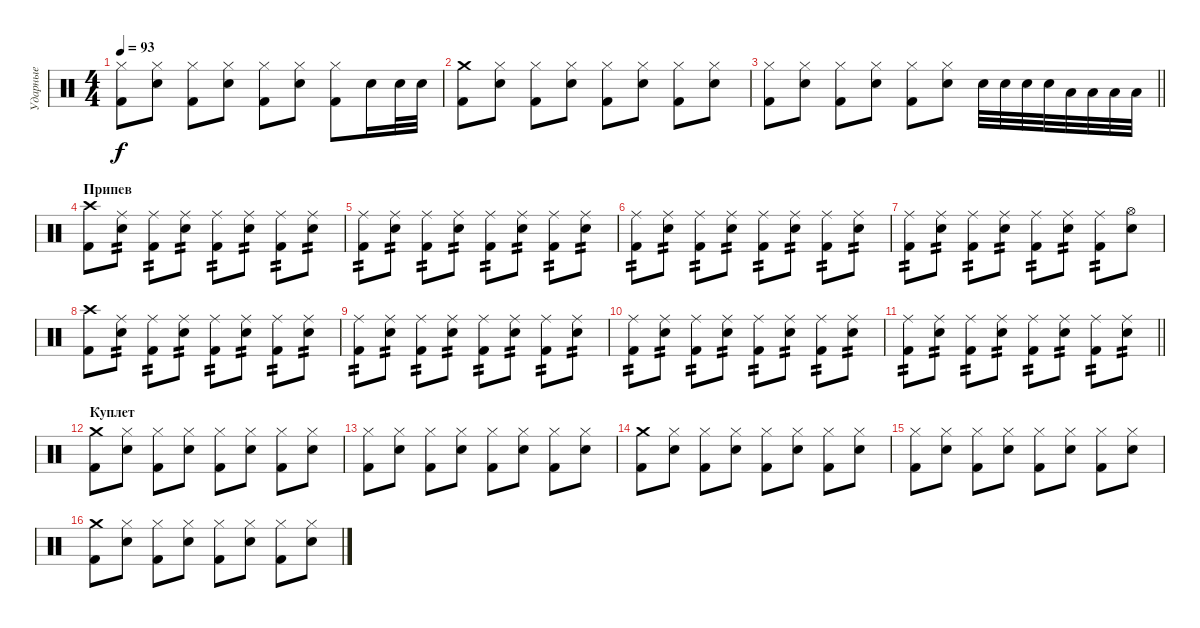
\track ("Ударные" "Ударные") {instrument percussion}
\staff {score}
\articulation defaults
\ts (4 4)
\tempo 93
\clef neutral
\ks c
("Kick (hit) 2" "Hi-Hat (closed)").8{dy f} ("Electric Snare (hit)" "Hi-Hat (closed)").8 ("Kick (hit) 2" "Hi-Hat (closed)").8 ("Electric Snare (hit)" "Hi-Hat (closed)").8 ("Kick (hit) 2" "Hi-Hat (closed)").8 ("Electric Snare (hit)" "Hi-Hat (closed)").8 ("Kick (hit) 2" "Hi-Hat (closed)").8 "Electric Snare (hit)".16 "Electric Snare (hit)".32 "Electric Snare (hit)".32 |
("Kick (hit) 2" "Crash medium (hit)").8 ("Electric Snare (hit)" "Hi-Hat (closed)").8 ("Kick (hit) 2" "Hi-Hat (closed)").8 ("Electric Snare (hit)" "Hi-Hat (closed)").8 ("Kick (hit) 2" "Hi-Hat (closed)").8 ("Electric Snare (hit)" "Hi-Hat (closed)").8 ("Kick (hit) 2" "Hi-Hat (closed)").8 ("Electric Snare (hit)" "Hi-Hat (closed)").8 |
\barLineRight lightlight
("Kick (hit) 2" "Hi-Hat (closed)").8 ("Electric Snare (hit)" "Hi-Hat (closed)").8 ("Kick (hit) 2" "Hi-Hat (closed)").8 ("Electric Snare (hit)" "Hi-Hat (closed)").8 ("Kick (hit) 2" "Hi-Hat (closed)").8 ("Electric Snare (hit)" "Hi-Hat (closed)").8 "Electric Snare (hit)".32 "Electric Snare (hit)".32 "Electric Snare (hit)".32 "Electric Snare (hit)".32 "Low Tom (hit)".32 "Low Tom (hit)".32 "Low Tom (hit)".32 "Low Tom (hit)".32 |
\section ("" "Припев")
("Kick (hit) 2" "Crash high (hit)").8 ("Electric Snare (hit)" "Ride (middle)").8{tp 2} ("Kick (hit) 2" "Ride (middle)").8{tp 2} ("Electric Snare (hit)" "Ride (middle)").8{tp 2} ("Kick (hit) 2" "Ride (middle)").8{tp 2} ("Electric Snare (hit)" "Ride (middle)").8{tp 2} ("Kick (hit) 2" "Ride (middle)").8{tp 2} ("Electric Snare (hit)" "Ride (middle)").8{tp 2} |
("Kick (hit) 2" "Ride (middle)").8{tp 2} ("Electric Snare (hit)" "Ride (middle)").8{tp 2} ("Kick (hit) 2" "Ride (middle)").8{tp 2} ("Electric Snare (hit)" "Ride (middle)").8{tp 2} ("Kick (hit) 2" "Ride (middle)").8{tp 2} ("Electric Snare (hit)" "Ride (middle)").8{tp 2} ("Kick (hit) 2" "Ride (middle)").8{tp 2} ("Electric Snare (hit)" "Ride (middle)").8{tp 2} |
("Kick (hit) 2" "Ride (middle)").8{tp 2} ("Electric Snare (hit)" "Ride (middle)").8{tp 2} ("Kick (hit) 2" "Ride (middle)").8{tp 2} ("Electric Snare (hit)" "Ride (middle)").8{tp 2} ("Kick (hit) 2" "Ride (middle)").8{tp 2} ("Electric Snare (hit)" "Ride (middle)").8{tp 2} ("Kick (hit) 2" "Ride (middle)").8{tp 2} ("Electric Snare (hit)" "Ride (middle)").8{tp 2} |
("Kick (hit) 2" "Ride (middle)").8{tp 2} ("Electric Snare (hit)" "Ride (middle)").8{tp 2} ("Kick (hit) 2" "Ride (middle)").8{tp 2} ("Electric Snare (hit)" "Ride (middle)").8{tp 2} ("Kick (hit) 2" "Ride (middle)").8{tp 2} ("Electric Snare (hit)" "Ride (middle)").8{tp 2} ("Kick (hit) 2" "Ride (middle)").8{tp 2} ("Electric Snare (hit)" "Hi-Hat (open)").8 |
("Kick (hit) 2" "Crash high (hit)").8 ("Electric Snare (hit)" "Ride (middle)").8{tp 2} ("Kick (hit) 2" "Ride (middle)").8{tp 2} ("Electric Snare (hit)" "Ride (middle)").8{tp 2} ("Kick (hit) 2" "Ride (middle)").8{tp 2} ("Electric Snare (hit)" "Ride (middle)").8{tp 2} ("Kick (hit) 2" "Ride (middle)").8{tp 2} ("Electric Snare (hit)" "Ride (middle)").8{tp 2} |
("Kick (hit) 2" "Ride (middle)").8{tp 2} ("Electric Snare (hit)" "Ride (middle)").8{tp 2} ("Kick (hit) 2" "Ride (middle)").8{tp 2} ("Electric Snare (hit)" "Ride (middle)").8{tp 2} ("Kick (hit) 2" "Ride (middle)").8{tp 2} ("Electric Snare (hit)" "Ride (middle)").8{tp 2} ("Kick (hit) 2" "Ride (middle)").8{tp 2} ("Electric Snare (hit)" "Ride (middle)").8{tp 2} |
("Kick (hit) 2" "Ride (middle)").8{tp 2} ("Electric Snare (hit)" "Ride (middle)").8{tp 2} ("Kick (hit) 2" "Ride (middle)").8{tp 2} ("Electric Snare (hit)" "Ride (middle)").8{tp 2} ("Kick (hit) 2" "Ride (middle)").8{tp 2} ("Electric Snare (hit)" "Ride (middle)").8{tp 2} ("Kick (hit) 2" "Ride (middle)").8{tp 2} ("Electric Snare (hit)" "Ride (middle)").8{tp 2} |
\barLineRight lightlight
("Kick (hit) 2" "Ride (middle)").8{tp 2} ("Electric Snare (hit)" "Ride (middle)").8{tp 2} ("Kick (hit) 2" "Ride (middle)").8{tp 2} ("Electric Snare (hit)" "Ride (middle)").8{tp 2} ("Kick (hit) 2" "Ride (middle)").8{tp 2} ("Electric Snare (hit)" "Ride (middle)").8{tp 2} ("Kick (hit) 2" "Ride (middle)").8{tp 2} ("Electric Snare (hit)" "Ride (middle)").8{tp 2} |
\section ("" "Куплет")
("Kick (hit) 2" "Crash medium (hit)").8 ("Electric Snare (hit)" "Hi-Hat (closed)").8 ("Kick (hit) 2" "Hi-Hat (closed)").8 ("Electric Snare (hit)" "Hi-Hat (closed)").8 ("Kick (hit) 2" "Hi-Hat (closed)").8 ("Electric Snare (hit)" "Hi-Hat (closed)").8 ("Kick (hit) 2" "Hi-Hat (closed)").8 ("Electric Snare (hit)" "Hi-Hat (closed)").8 |
("Kick (hit) 2" "Hi-Hat (closed)").8 ("Electric Snare (hit)" "Hi-Hat (closed)").8 ("Kick (hit) 2" "Hi-Hat (closed)").8 ("Electric Snare (hit)" "Hi-Hat (closed)").8 ("Kick (hit) 2" "Hi-Hat (closed)").8 ("Electric Snare (hit)" "Hi-Hat (closed)").8 ("Kick (hit) 2" "Hi-Hat (closed)").8 ("Electric Snare (hit)" "Hi-Hat (closed)").8 |
("Kick (hit) 2" "Crash medium (hit)").8 ("Electric Snare (hit)" "Hi-Hat (closed)").8 ("Kick (hit) 2" "Hi-Hat (closed)").8 ("Electric Snare (hit)" "Hi-Hat (closed)").8 ("Kick (hit) 2" "Hi-Hat (closed)").8 ("Electric Snare (hit)" "Hi-Hat (closed)").8 ("Kick (hit) 2" "Hi-Hat (closed)").8 ("Electric Snare (hit)" "Hi-Hat (closed)").8 |
("Kick (hit) 2" "Hi-Hat (closed)").8 ("Electric Snare (hit)" "Hi-Hat (closed)").8 ("Kick (hit) 2" "Hi-Hat (closed)").8 ("Electric Snare (hit)" "Hi-Hat (closed)").8 ("Kick (hit) 2" "Hi-Hat (closed)").8 ("Electric Snare (hit)" "Hi-Hat (closed)").8 ("Kick (hit) 2" "Hi-Hat (closed)").8 ("Electric Snare (hit)" "Hi-Hat (closed)").8 |
("Kick (hit) 2" "Crash medium (hit)").8 ("Electric Snare (hit)" "Hi-Hat (closed)").8 ("Kick (hit) 2" "Hi-Hat (closed)").8 ("Electric Snare (hit)" "Hi-Hat (closed)").8 ("Kick (hit) 2" "Hi-Hat (closed)").8 ("Electric Snare (hit)" "Hi-Hat (closed)").8 ("Kick (hit) 2" "Hi-Hat (closed)").8 ("Electric Snare (hit)" "Hi-Hat (closed)").8
